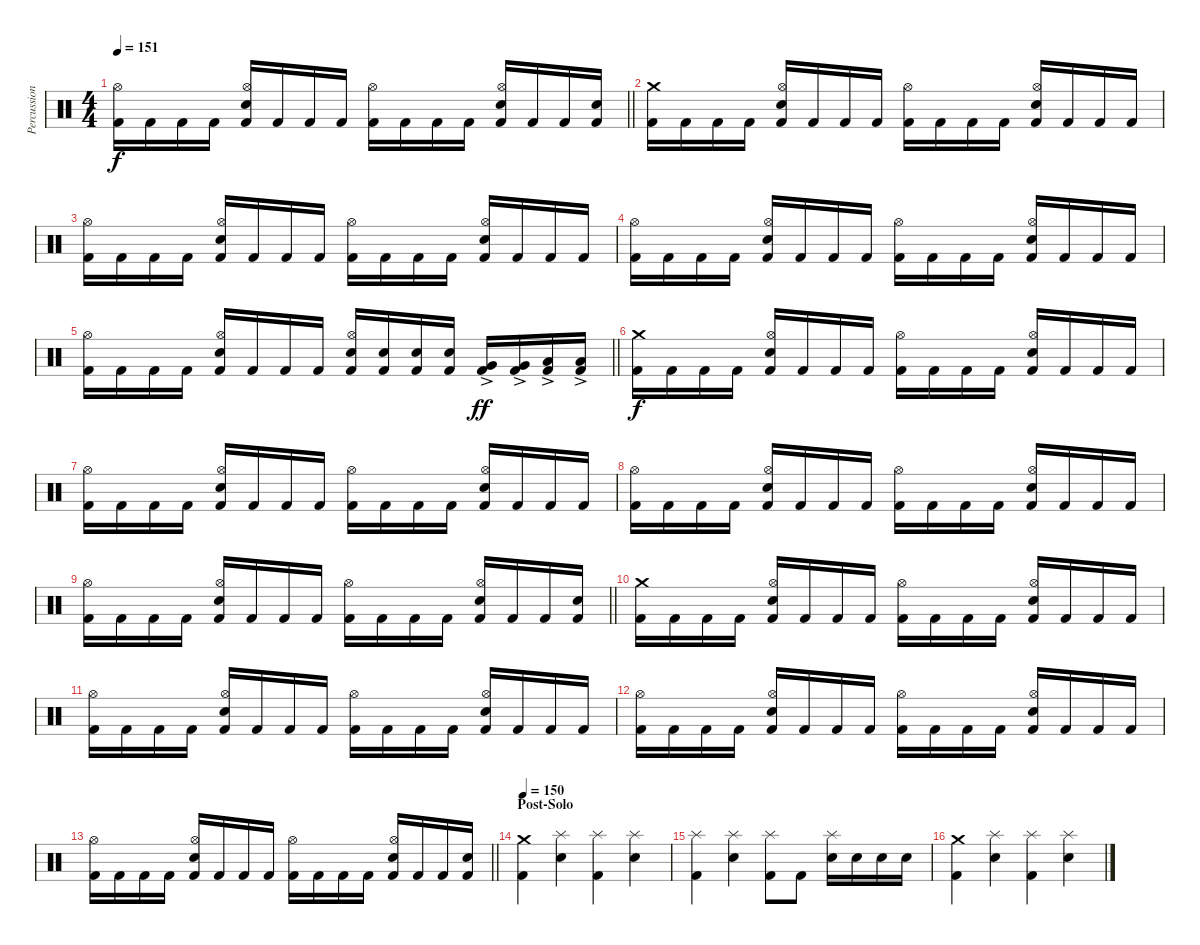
\track ("Percussion" "Percussion") {instrument percussion}
\staff {score}
\articulation defaults
\ts (4 4)
\tempo 151
\clef neutral
\barLineRight lightlight
\ks c
("Kick (hit) 2" "Hi-Hat (open)").16{dy f} "Kick (hit) 2".16 "Kick (hit) 2".16 "Kick (hit) 2".16 ("Kick (hit) 2" "Snare (hit) 2" "Hi-Hat (open)").16 "Kick (hit) 2".16 "Kick (hit) 2".16 "Kick (hit) 2".16 ("Kick (hit) 2" "Hi-Hat (open)").16 "Kick (hit) 2".16 "Kick (hit) 2".16 "Kick (hit) 2".16 ("Kick (hit) 2" "Snare (hit) 2" "Hi-Hat (open)").16 "Kick (hit) 2".16 "Kick (hit) 2".16 ("Kick (hit) 2" "Snare (hit) 2").16 |
\section ("" "")
("Kick (hit) 2" "Crash medium (hit)").16 "Kick (hit) 2".16 "Kick (hit) 2".16 "Kick (hit) 2".16 ("Kick (hit) 2" "Snare (hit) 2" "Hi-Hat (open)").16 "Kick (hit) 2".16 "Kick (hit) 2".16 "Kick (hit) 2".16 ("Kick (hit) 2" "Hi-Hat (open)").16 "Kick (hit) 2".16 "Kick (hit) 2".16 "Kick (hit) 2".16 ("Kick (hit) 2" "Snare (hit) 2" "Hi-Hat (open)").16 "Kick (hit) 2".16 "Kick (hit) 2".16 "Kick (hit) 2".16 |
("Kick (hit) 2" "Hi-Hat (open)").16 "Kick (hit) 2".16 "Kick (hit) 2".16 "Kick (hit) 2".16 ("Kick (hit) 2" "Snare (hit) 2" "Hi-Hat (open)").16 "Kick (hit) 2".16 "Kick (hit) 2".16 "Kick (hit) 2".16 ("Kick (hit) 2" "Hi-Hat (open)").16 "Kick (hit) 2".16 "Kick (hit) 2".16 "Kick (hit) 2".16 ("Kick (hit) 2" "Snare (hit) 2" "Hi-Hat (open)").16 "Kick (hit) 2".16 "Kick (hit) 2".16 "Kick (hit) 2".16 |
("Kick (hit) 2" "Hi-Hat (open)").16 "Kick (hit) 2".16 "Kick (hit) 2".16 "Kick (hit) 2".16 ("Kick (hit) 2" "Snare (hit) 2" "Hi-Hat (open)").16 "Kick (hit) 2".16 "Kick (hit) 2".16 "Kick (hit) 2".16 ("Kick (hit) 2" "Hi-Hat (open)").16 "Kick (hit) 2".16 "Kick (hit) 2".16 "Kick (hit) 2".16 ("Kick (hit) 2" "Snare (hit) 2" "Hi-Hat (open)").16 "Kick (hit) 2".16 "Kick (hit) 2".16 "Kick (hit) 2".16 |
\barLineRight lightlight
("Kick (hit) 2" "Hi-Hat (open)").16 "Kick (hit) 2".16 "Kick (hit) 2".16 "Kick (hit) 2".16 ("Kick (hit) 2" "Snare (hit) 2" "Hi-Hat (open)").16 "Kick (hit) 2".16 "Kick (hit) 2".16 "Kick (hit) 2".16 ("Kick (hit) 2" "Snare (hit) 2" "Hi-Hat (open)").16 ("Kick (hit) 2" "Snare (hit) 2").16 ("Kick (hit) 2" "Snare (hit) 2").16 ("Kick (hit) 2" "Snare (hit) 2").16 ("Kick (hit) 2" "Very Low Tom (hit)"{ac}).16{dy ff} ("Kick (hit) 2" "Very Low Tom (hit)"{ac}).16 ("Kick (hit) 2" "Low Floor Tom (hit)"{ac}).16 ("Kick (hit) 2" "Low Floor Tom (hit)"{ac}).16 |
\section ("" "")
("Kick (hit) 2" "Crash medium (hit)").16{dy f} "Kick (hit) 2".16 "Kick (hit) 2".16 "Kick (hit) 2".16 ("Kick (hit) 2" "Snare (hit) 2" "Hi-Hat (open)").16 "Kick (hit) 2".16 "Kick (hit) 2".16 "Kick (hit) 2".16 ("Kick (hit) 2" "Hi-Hat (open)").16 "Kick (hit) 2".16 "Kick (hit) 2".16 "Kick (hit) 2".16 ("Kick (hit) 2" "Snare (hit) 2" "Hi-Hat (open)").16 "Kick (hit) 2".16 "Kick (hit) 2".16 "Kick (hit) 2".16 |
("Kick (hit) 2" "Hi-Hat (open)").16 "Kick (hit) 2".16 "Kick (hit) 2".16 "Kick (hit) 2".16 ("Kick (hit) 2" "Snare (hit) 2" "Hi-Hat (open)").16 "Kick (hit) 2".16 "Kick (hit) 2".16 "Kick (hit) 2".16 ("Kick (hit) 2" "Hi-Hat (open)").16 "Kick (hit) 2".16 "Kick (hit) 2".16 "Kick (hit) 2".16 ("Kick (hit) 2" "Snare (hit) 2" "Hi-Hat (open)").16 "Kick (hit) 2".16 "Kick (hit) 2".16 "Kick (hit) 2".16 |
("Kick (hit) 2" "Hi-Hat (open)").16 "Kick (hit) 2".16 "Kick (hit) 2".16 "Kick (hit) 2".16 ("Kick (hit) 2" "Snare (hit) 2" "Hi-Hat (open)").16 "Kick (hit) 2".16 "Kick (hit) 2".16 "Kick (hit) 2".16 ("Kick (hit) 2" "Hi-Hat (open)").16 "Kick (hit) 2".16 "Kick (hit) 2".16 "Kick (hit) 2".16 ("Kick (hit) 2" "Snare (hit) 2" "Hi-Hat (open)").16 "Kick (hit) 2".16 "Kick (hit) 2".16 "Kick (hit) 2".16 |
\barLineRight lightlight
("Kick (hit) 2" "Hi-Hat (open)").16 "Kick (hit) 2".16 "Kick (hit) 2".16 "Kick (hit) 2".16 ("Kick (hit) 2" "Snare (hit) 2" "Hi-Hat (open)").16 "Kick (hit) 2".16 "Kick (hit) 2".16 "Kick (hit) 2".16 ("Kick (hit) 2" "Hi-Hat (open)").16 "Kick (hit) 2".16 "Kick (hit) 2".16 "Kick (hit) 2".16 ("Kick (hit) 2" "Snare (hit) 2" "Hi-Hat (open)").16 "Kick (hit) 2".16 "Kick (hit) 2".16 ("Kick (hit) 2" "Snare (hit) 2").16 |
\section ("" "")
("Kick (hit) 2" "Crash medium (hit)").16 "Kick (hit) 2".16 "Kick (hit) 2".16 "Kick (hit) 2".16 ("Kick (hit) 2" "Snare (hit) 2" "Hi-Hat (open)").16 "Kick (hit) 2".16 "Kick (hit) 2".16 "Kick (hit) 2".16 ("Kick (hit) 2" "Hi-Hat (open)").16 "Kick (hit) 2".16 "Kick (hit) 2".16 "Kick (hit) 2".16 ("Kick (hit) 2" "Snare (hit) 2" "Hi-Hat (open)").16 "Kick (hit) 2".16 "Kick (hit) 2".16 "Kick (hit) 2".16 |
("Kick (hit) 2" "Hi-Hat (open)").16 "Kick (hit) 2".16 "Kick (hit) 2".16 "Kick (hit) 2".16 ("Kick (hit) 2" "Snare (hit) 2" "Hi-Hat (open)").16 "Kick (hit) 2".16 "Kick (hit) 2".16 "Kick (hit) 2".16 ("Kick (hit) 2" "Hi-Hat (open)").16 "Kick (hit) 2".16 "Kick (hit) 2".16 "Kick (hit) 2".16 ("Kick (hit) 2" "Snare (hit) 2" "Hi-Hat (open)").16 "Kick (hit) 2".16 "Kick (hit) 2".16 "Kick (hit) 2".16 |
("Kick (hit) 2" "Hi-Hat (open)").16 "Kick (hit) 2".16 "Kick (hit) 2".16 "Kick (hit) 2".16 ("Kick (hit) 2" "Snare (hit) 2" "Hi-Hat (open)").16 "Kick (hit) 2".16 "Kick (hit) 2".16 "Kick (hit) 2".16 ("Kick (hit) 2" "Hi-Hat (open)").16 "Kick (hit) 2".16 "Kick (hit) 2".16 "Kick (hit) 2".16 ("Kick (hit) 2" "Snare (hit) 2" "Hi-Hat (open)").16 "Kick (hit) 2".16 "Kick (hit) 2".16 "Kick (hit) 2".16 |
\barLineRight lightlight
("Kick (hit) 2" "Hi-Hat (open)").16 "Kick (hit) 2".16 "Kick (hit) 2".16 "Kick (hit) 2".16 ("Kick (hit) 2" "Snare (hit) 2" "Hi-Hat (open)").16 "Kick (hit) 2".16 "Kick (hit) 2".16 "Kick (hit) 2".16 ("Kick (hit) 2" "Hi-Hat (open)").16 "Kick (hit) 2".16 "Kick (hit) 2".16 "Kick (hit) 2".16 ("Kick (hit) 2" "Snare (hit) 2" "Hi-Hat (open)").16 "Kick (hit) 2".16 "Kick (hit) 2".16 ("Kick (hit) 2" "Snare (hit) 2").16 |
\section ("" "Post-Solo")
\tempo 150
("Kick (hit) 2" "Crash medium (hit)").4 ("Snare (hit) 2" "Splash (hit)").4 ("Kick (hit) 2" "Splash (hit)").4 ("Snare (hit) 2" "Splash (hit)").4 |
("Kick (hit) 2" "Splash (hit)").4 ("Snare (hit) 2" "Splash (hit)").4 ("Kick (hit) 2" "Splash (hit)").8 "Kick (hit) 2".8 ("Snare (hit) 2" "Splash (hit)").16 "Snare (hit) 2".16 "Snare (hit) 2".16 "Snare (hit) 2".16 |
("Kick (hit) 2" "Crash medium (hit)").4 ("Snare (hit) 2" "Splash (hit)").4 ("Kick (hit) 2" "Splash (hit)").4 ("Snare (hit) 2" "Splash (hit)").4
